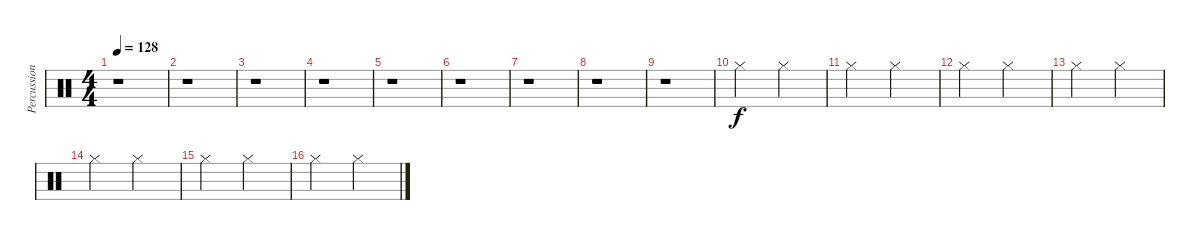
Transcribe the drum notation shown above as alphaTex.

\track ("Percussions" "Percussion") {instrument percussion}
\staff {score}
\articulation defaults
\ts (4 4)
\tempo 128
\clef neutral
\ks c
r.1{dy f} |
r.1 |
r.1 |
r.1 |
r.1 |
r.1 |
r.1 |
r.1 |
r.1 |
"Hi-Hat (closed)".2 "Hi-Hat (closed)".2 |
"Hi-Hat (closed)".2 "Hi-Hat (closed)".2 |
"Hi-Hat (closed)".2 "Hi-Hat (closed)".2 |
"Hi-Hat (closed)".2 "Hi-Hat (closed)".2 |
"Hi-Hat (closed)".2 "Hi-Hat (closed)".2 |
"Hi-Hat (closed)".2 "Hi-Hat (closed)".2 |
"Hi-Hat (closed)".2 "Hi-Hat (closed)".2
